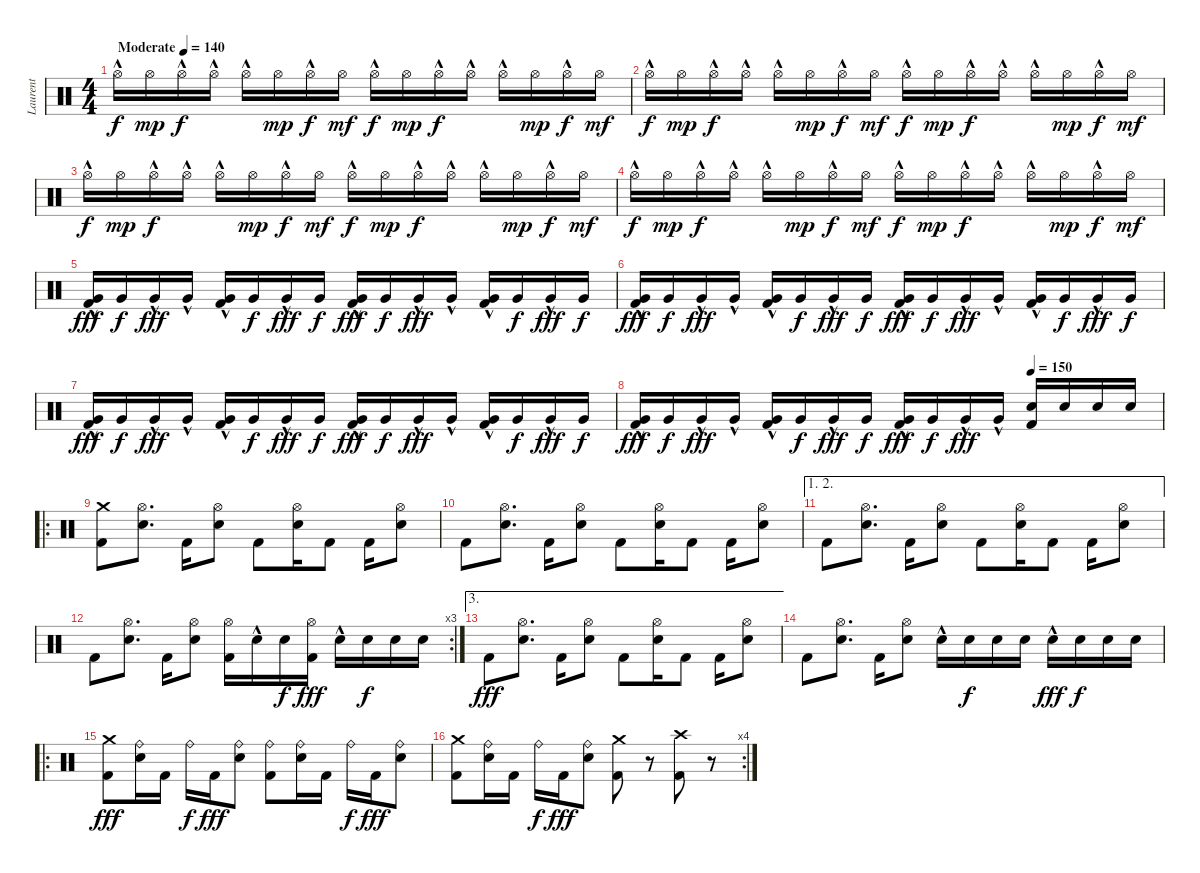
\track ("Laurent" "Laurent") {instrument percussion}
\staff {score}
\articulation defaults
\ts (4 4)
\tempo (140 "Moderate")
\clef neutral
\ks c "Hi-Hat (open)"{hac}.16{dy f} "Hi-Hat (open)".16{dy mp} "Hi-Hat (open)"{hac}.16{dy f} "Hi-Hat (open)"{hac}.16 "Hi-Hat (open)"{hac}.16 "Hi-Hat (open)".16{dy mp} "Hi-Hat (open)"{hac}.16{dy f} "Hi-Hat (open)".16{dy mf} "Hi-Hat (open)"{hac}.16{dy f} "Hi-Hat (open)".16{dy mp} "Hi-Hat (open)"{hac}.16{dy f} "Hi-Hat (open)"{hac}.16 "Hi-Hat (open)"{hac}.16 "Hi-Hat (open)".16{dy mp} "Hi-Hat (open)"{hac}.16{dy f} "Hi-Hat (open)".16{dy mf}
|
"Hi-Hat (open)"{hac}.16{dy f} "Hi-Hat (open)".16{dy mp} "Hi-Hat (open)"{hac}.16{dy f} "Hi-Hat (open)"{hac}.16 "Hi-Hat (open)"{hac}.16 "Hi-Hat (open)".16{dy mp} "Hi-Hat (open)"{hac}.16{dy f} "Hi-Hat (open)".16{dy mf} "Hi-Hat (open)"{hac}.16{dy f} "Hi-Hat (open)".16{dy mp} "Hi-Hat (open)"{hac}.16{dy f} "Hi-Hat (open)"{hac}.16 "Hi-Hat (open)"{hac}.16 "Hi-Hat (open)".16{dy mp} "Hi-Hat (open)"{hac}.16{dy f} "Hi-Hat (open)".16{dy mf} |
"Hi-Hat (open)"{hac}.16{dy f} "Hi-Hat (open)".16{dy mp} "Hi-Hat (open)"{hac}.16{dy f} "Hi-Hat (open)"{hac}.16 "Hi-Hat (open)"{hac}.16 "Hi-Hat (open)".16{dy mp} "Hi-Hat (open)"{hac}.16{dy f} "Hi-Hat (open)".16{dy mf} "Hi-Hat (open)"{hac}.16{dy f} "Hi-Hat (open)".16{dy mp} "Hi-Hat (open)"{hac}.16{dy f} "Hi-Hat (open)"{hac}.16 "Hi-Hat (open)"{hac}.16 "Hi-Hat (open)".16{dy mp} "Hi-Hat (open)"{hac}.16{dy f} "Hi-Hat (open)".16{dy mf} |
"Hi-Hat (open)"{hac}.16{dy f} "Hi-Hat (open)".16{dy mp} "Hi-Hat (open)"{hac}.16{dy f} "Hi-Hat (open)"{hac}.16 "Hi-Hat (open)"{hac}.16 "Hi-Hat (open)".16{dy mp} "Hi-Hat (open)"{hac}.16{dy f} "Hi-Hat (open)".16{dy mf} "Hi-Hat (open)"{hac}.16{dy f} "Hi-Hat (open)".16{dy mp} "Hi-Hat (open)"{hac}.16{dy f} "Hi-Hat (open)"{hac}.16 "Hi-Hat (open)"{hac}.16 "Hi-Hat (open)".16{dy mp} "Hi-Hat (open)"{hac}.16{dy f} "Hi-Hat (open)".16{dy mf} |
("Very Low Tom (hit)"{hac} "Kick (hit) 2").16{dy fff} "Very Low Tom (hit)".16{dy f} "Very Low Tom (hit)"{hac}.16{dy fff} "Very Low Tom (hit)"{hac}.16 ("Very Low Tom (hit)"{hac} "Kick (hit) 2").16 "Very Low Tom (hit)".16{dy f} "Very Low Tom (hit)"{hac}.16{dy fff} "Very Low Tom (hit)".16{dy f} ("Very Low Tom (hit)"{hac} "Kick (hit) 2").16{dy fff} "Very Low Tom (hit)".16{dy f} "Very Low Tom (hit)"{hac}.16{dy fff} "Very Low Tom (hit)"{hac}.16 ("Very Low Tom (hit)"{hac} "Kick (hit) 2").16 "Very Low Tom (hit)".16{dy f} "Very Low Tom (hit)"{hac}.16{dy fff} "Very Low Tom (hit)".16{dy f} |
("Very Low Tom (hit)"{hac} "Kick (hit) 2").16{dy fff} "Very Low Tom (hit)".16{dy f} "Very Low Tom (hit)"{hac}.16{dy fff} "Very Low Tom (hit)"{hac}.16 ("Very Low Tom (hit)"{hac} "Kick (hit) 2").16 "Very Low Tom (hit)".16{dy f} "Very Low Tom (hit)"{hac}.16{dy fff} "Very Low Tom (hit)".16{dy f} ("Very Low Tom (hit)"{hac} "Kick (hit) 2").16{dy fff} "Very Low Tom (hit)".16{dy f} "Very Low Tom (hit)"{hac}.16{dy fff} "Very Low Tom (hit)"{hac}.16 ("Very Low Tom (hit)"{hac} "Kick (hit) 2").16 "Very Low Tom (hit)".16{dy f} "Very Low Tom (hit)"{hac}.16{dy fff} "Very Low Tom (hit)".16{dy f} |
("Very Low Tom (hit)"{hac} "Kick (hit) 2").16{dy fff} "Very Low Tom (hit)".16{dy f} "Very Low Tom (hit)"{hac}.16{dy fff} "Very Low Tom (hit)"{hac}.16 ("Very Low Tom (hit)"{hac} "Kick (hit) 2").16 "Very Low Tom (hit)".16{dy f} "Very Low Tom (hit)"{hac}.16{dy fff} "Very Low Tom (hit)".16{dy f} ("Very Low Tom (hit)"{hac} "Kick (hit) 2").16{dy fff} "Very Low Tom (hit)".16{dy f} "Very Low Tom (hit)"{hac}.16{dy fff} "Very Low Tom (hit)"{hac}.16 ("Very Low Tom (hit)"{hac} "Kick (hit) 2").16 "Very Low Tom (hit)".16{dy f} "Very Low Tom (hit)"{hac}.16{dy fff} "Very Low Tom (hit)".16{dy f} |
\tempo (150 0.75)
("Very Low Tom (hit)"{hac} "Kick (hit) 2").16{dy fff} "Very Low Tom (hit)".16{dy f} "Very Low Tom (hit)"{hac}.16{dy fff} "Very Low Tom (hit)"{hac}.16 ("Very Low Tom (hit)"{hac} "Kick (hit) 2").16 "Very Low Tom (hit)".16{dy f} "Very Low Tom (hit)"{hac}.16{dy fff} "Very Low Tom (hit)".16{dy f} ("Very Low Tom (hit)"{hac} "Kick (hit) 2").16{dy fff} "Very Low Tom (hit)".16{dy f} "Very Low Tom (hit)"{hac}.16{dy fff} "Very Low Tom (hit)"{hac}.16 ("Electric Snare (hit)" "Kick (hit) 2").16 "Electric Snare (hit)".16 "Electric Snare (hit)".16 "Electric Snare (hit)".16 |
\ro
("Crash medium (hit)" "Kick (hit) 2").8 ("Hi-Hat (open)" "Electric Snare (hit)").8{d} "Kick (hit) 2".16 ("Hi-Hat (open)" "Electric Snare (hit)").8 "Kick (hit) 2".8 ("Hi-Hat (open)" "Electric Snare (hit)").16 "Kick (hit) 2".8 "Kick (hit) 2".16 ("Hi-Hat (open)" "Electric Snare (hit)").8 |
"Kick (hit) 2".8 ("Hi-Hat (open)" "Electric Snare (hit)").8{d} "Kick (hit) 2".16 ("Hi-Hat (open)" "Electric Snare (hit)").8 "Kick (hit) 2".8 ("Hi-Hat (open)" "Electric Snare (hit)").16 "Kick (hit) 2".8 "Kick (hit) 2".16 ("Hi-Hat (open)" "Electric Snare (hit)").8 |
\ae (1 2)
"Kick (hit) 2".8 ("Hi-Hat (open)" "Electric Snare (hit)").8{d} "Kick (hit) 2".16 ("Hi-Hat (open)" "Electric Snare (hit)").8 "Kick (hit) 2".8 ("Hi-Hat (open)" "Electric Snare (hit)").16 "Kick (hit) 2".8 "Kick (hit) 2".16 ("Hi-Hat (open)" "Electric Snare (hit)").8 |
\rc 3 "Kick (hit) 2".8
("Hi-Hat (open)" "Electric Snare (hit)").8{d} "Kick (hit) 2".16 ("Hi-Hat (open)" "Electric Snare (hit)").8 ("Hi-Hat (open)" "Kick (hit) 2").16 "Electric Snare (hit)"{hac}.16 "Electric Snare (hit)".16{dy f} ("Hi-Hat (open)" "Kick (hit) 2").16{dy fff} "Electric Snare (hit)"{hac}.16 "Electric Snare (hit)".16{dy f} "Electric Snare (hit)".16 "Electric Snare (hit)".16 |
\ae 3 "Kick (hit) 2".8{dy fff}
("Hi-Hat (open)" "Electric Snare (hit)").8{d} "Kick (hit) 2".16 ("Hi-Hat (open)" "Electric Snare (hit)").8 "Kick (hit) 2".8 ("Hi-Hat (open)" "Electric Snare (hit)").16 "Kick (hit) 2".8 "Kick (hit) 2".16 ("Hi-Hat (open)" "Electric Snare (hit)").8 |
"Kick (hit) 2".8 ("Hi-Hat (open)" "Electric Snare (hit)").8{d} "Kick (hit) 2".16 ("Hi-Hat (open)" "Electric Snare (hit)").8 "Electric Snare (hit)"{hac}.16 "Electric Snare (hit)".16{dy f} "Electric Snare (hit)".16 "Electric Snare (hit)".16 "Electric Snare (hit)"{hac}.16{dy fff} "Electric Snare (hit)".16{dy f} "Electric Snare (hit)".16 "Electric Snare (hit)".16 |
\ro
("Crash medium (hit)" "Kick (hit) 2").8{dy fff} ("Ride (bell)" "Electric Snare (hit)").16 "Kick (hit) 2".16 "Ride (bell)".16{dy f} "Kick (hit) 2".16{dy fff} ("Ride (bell)" "Electric Snare (hit)").8 ("Ride (bell)" "Kick (hit) 2").8 ("Ride (bell)" "Electric Snare (hit)").16 "Kick (hit) 2".16 "Ride (bell)".16{dy f} "Kick (hit) 2".16{dy fff} ("Ride (bell)" "Electric Snare (hit)").8 |
\rc 4
("Crash medium (hit)" "Kick (hit) 2").8 ("Ride (bell)" "Electric Snare (hit)").16 "Kick (hit) 2".16 "Ride (bell)".16{dy f} "Kick (hit) 2".16{dy fff} ("Ride (bell)" "Electric Snare (hit)").8 ("Crash medium (hit)" "Kick (hit) 2").8 r.8 ("Crash high (hit)" "Kick (hit) 2").8 r.8
